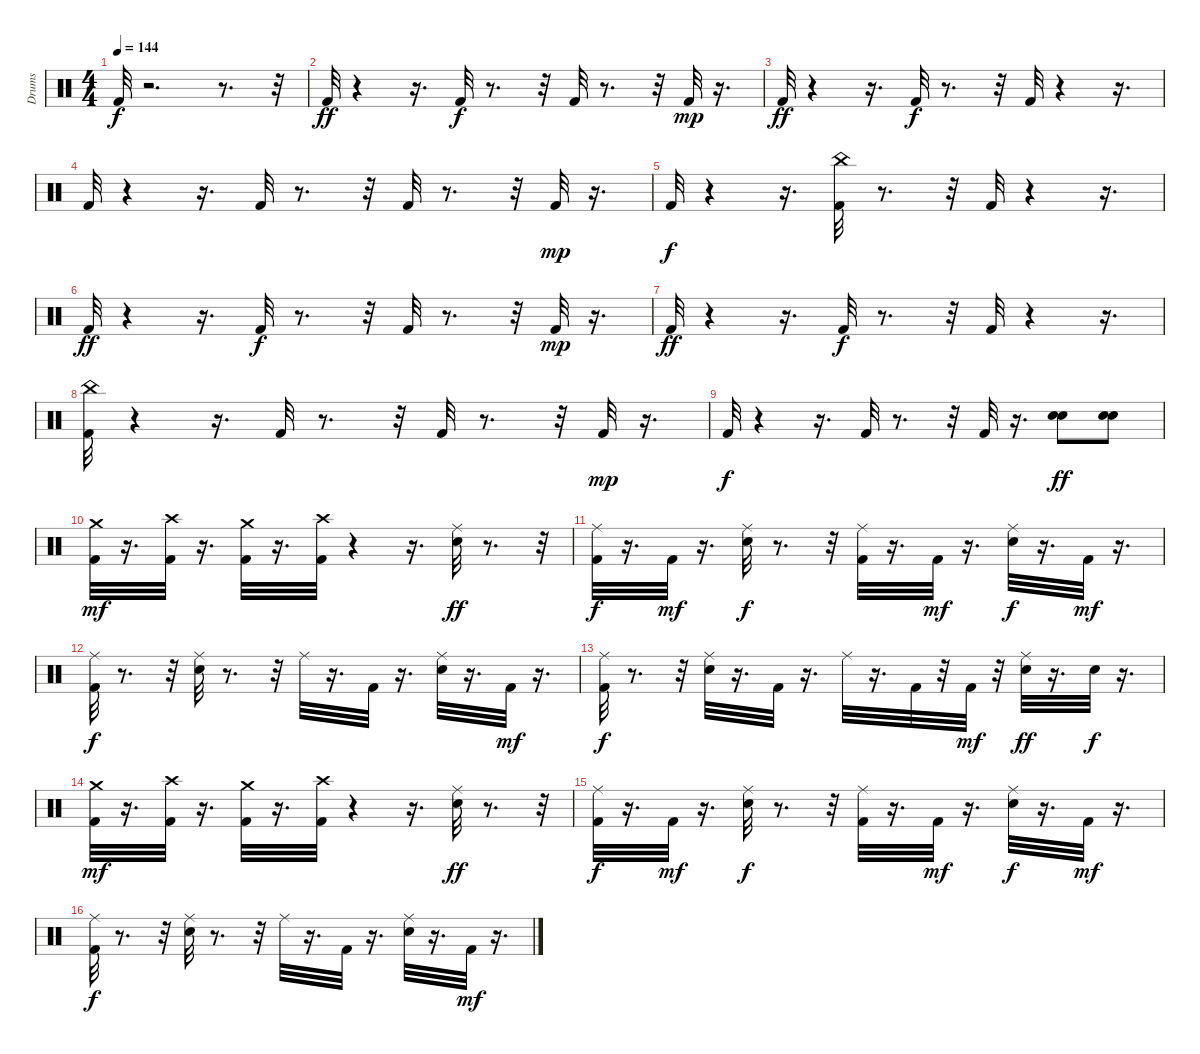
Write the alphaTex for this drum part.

\track ("Drums" "Drums") {instrument percussion}
\staff {score}
\articulation defaults
\ts (4 4)
\tempo 144
\clef neutral
\ks c "Kick (hit) 2".32{dy f}
r.2{d} r.8{d} r.32 |
"Kick (hit) 2".32{dy ff} r.4 r.16{d} "Kick (hit) 2".32{dy f} r.8{d} r.32 "Kick (hit) 2".32 r.8{d} r.32 "Kick (hit) 2".32{dy mp} r.16{d} |
"Kick (hit) 2".32{dy ff} r.4 r.16{d} "Kick (hit) 2".32{dy f} r.8{d} r.32 "Kick (hit) 2".32 r.4 r.16{d} |
"Kick (hit) 2".32 r.4 r.16{d} "Kick (hit) 2".32 r.8{d} r.32 "Kick (hit) 2".32 r.8{d} r.32 "Kick (hit) 2".32{dy mp} r.16{d} |
"Kick (hit) 2".32{dy f} r.4 r.16{d} ("China (hit)" "Kick (hit) 2").32 r.8{d} r.32 "Kick (hit) 2".32 r.4 r.16{d} |
"Kick (hit) 2".32{dy ff} r.4 r.16{d} "Kick (hit) 2".32{dy f} r.8{d} r.32 "Kick (hit) 2".32 r.8{d} r.32 "Kick (hit) 2".32{dy mp} r.16{d} |
"Kick (hit) 2".32{dy ff} r.4 r.16{d} "Kick (hit) 2".32{dy f} r.8{d} r.32 "Kick (hit) 2".32 r.4 r.16{d} |
("China (hit)" "Kick (hit) 2").32 r.4 r.16{d} "Kick (hit) 2".32 r.8{d} r.32 "Kick (hit) 2".32 r.8{d} r.32 "Kick (hit) 2".32{dy mp} r.16{d} |
"Kick (hit) 2".32{dy f} r.4 r.16{d} "Kick (hit) 2".32 r.8{d} r.32 "Kick (hit) 2".32 r.16{d} ("Snare (hit) 2" "Snare (hit) 2").8{dy ff} ("Snare (hit) 2" "Snare (hit) 2").8 |
("Crash medium (hit)" "Kick (hit) 2").32{dy mf} r.16{d} ("Crash high (hit)" "Kick (hit) 2").32 r.16{d} ("Crash medium (hit)" "Kick (hit) 2").32 r.16{d} ("Crash high (hit)" "Kick (hit) 2").32 r.4 r.16{d} ("Ride (middle)" "Snare (hit) 2").32{dy ff} r.8{d} r.32 |
("Ride (middle)" "Kick (hit) 2").32{dy f} r.16{d} "Kick (hit) 2".32{dy mf} r.16{d} ("Ride (middle)" "Snare (hit) 2").32{dy f} r.8{d} r.32 ("Ride (middle)" "Kick (hit) 2").32 r.16{d} "Kick (hit) 2".32{dy mf} r.16{d} ("Ride (middle)" "Snare (hit) 2").32{dy f} r.16{d} "Kick (hit) 2".32{dy mf} r.16{d} |
("Ride (middle)" "Kick (hit) 2").32{dy f} r.8{d} r.32 ("Ride (middle)" "Snare (hit) 2").32 r.8{d} r.32 "Ride (middle)".32 r.16{d} "Kick (hit) 2".32 r.16{d} ("Ride (middle)" "Snare (hit) 2").32 r.16{d} "Kick (hit) 2".32{dy mf} r.16{d} |
("Ride (middle)" "Kick (hit) 2").32{dy f} r.8{d} r.32 ("Ride (middle)" "Snare (hit) 2").32 r.16{d} "Kick (hit) 2".32 r.16{d} "Ride (middle)".32 r.16{d} "Kick (hit) 2".32 r.32 "Kick (hit) 2".32{dy mf} r.32 ("Ride (middle)" "Snare (hit) 2").32{dy ff} r.16{d} "Snare (hit) 2".32{dy f} r.16{d} |
("Crash medium (hit)" "Kick (hit) 2").32{dy mf} r.16{d} ("Crash high (hit)" "Kick (hit) 2").32 r.16{d} ("Crash medium (hit)" "Kick (hit) 2").32 r.16{d} ("Crash high (hit)" "Kick (hit) 2").32 r.4 r.16{d} ("Ride (middle)" "Snare (hit) 2").32{dy ff} r.8{d} r.32 |
("Ride (middle)" "Kick (hit) 2").32{dy f} r.16{d} "Kick (hit) 2".32{dy mf} r.16{d} ("Ride (middle)" "Snare (hit) 2").32{dy f} r.8{d} r.32 ("Ride (middle)" "Kick (hit) 2").32 r.16{d} "Kick (hit) 2".32{dy mf} r.16{d} ("Ride (middle)" "Snare (hit) 2").32{dy f} r.16{d} "Kick (hit) 2".32{dy mf} r.16{d} |
("Ride (middle)" "Kick (hit) 2").32{dy f} r.8{d} r.32 ("Ride (middle)" "Snare (hit) 2").32 r.8{d} r.32 "Ride (middle)".32 r.16{d} "Kick (hit) 2".32 r.16{d} ("Ride (middle)" "Snare (hit) 2").32 r.16{d} "Kick (hit) 2".32{dy mf} r.16{d}
